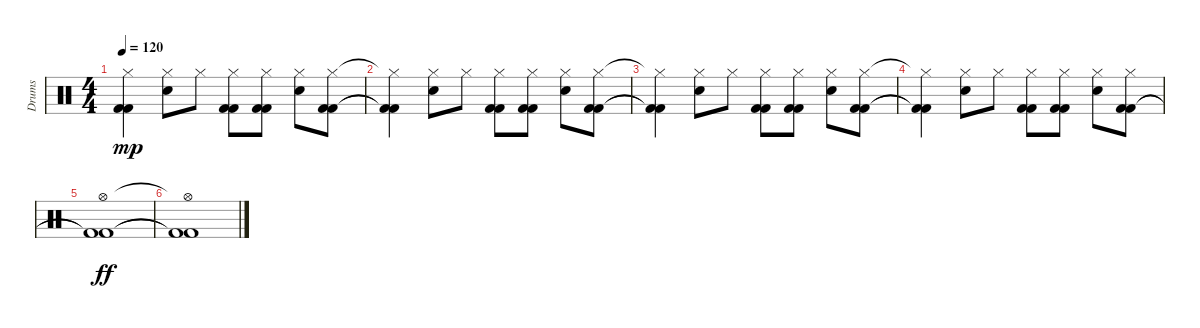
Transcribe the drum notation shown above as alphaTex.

\track ("Drums" "Drums") {instrument percussion}
\staff {score}
\articulation defaults
\ts (4 4)
\tempo 120
\clef neutral
\ks c
("Hi-Hat (closed)" "Kick (hit) 2" "Kick (hit) 2").4{dy mp} ("Hi-Hat (closed)" "Hand Clap (hit)").8 "Hi-Hat (closed)".8 ("Hi-Hat (closed)" "Kick (hit) 2" "Kick (hit) 2").8 ("Hi-Hat (closed)" "Kick (hit) 2" "Kick (hit) 2").8 ("Hi-Hat (closed)" "Hand Clap (hit)").8 ("Hi-Hat (closed)" "Kick (hit) 2" "Kick (hit) 2").8 |
("Hi-Hat (closed)"{t} "Kick (hit) 2"{t} "Kick (hit) 2"{t}).4 ("Hi-Hat (closed)" "Hand Clap (hit)").8 "Hi-Hat (closed)".8 ("Hi-Hat (closed)" "Kick (hit) 2" "Kick (hit) 2").8 ("Hi-Hat (closed)" "Kick (hit) 2" "Kick (hit) 2").8 ("Hi-Hat (closed)" "Hand Clap (hit)").8 ("Hi-Hat (closed)" "Kick (hit) 2" "Kick (hit) 2").8 |
("Hi-Hat (closed)"{t} "Kick (hit) 2"{t} "Kick (hit) 2"{t}).4 ("Hi-Hat (closed)" "Hand Clap (hit)").8 "Hi-Hat (closed)".8 ("Hi-Hat (closed)" "Kick (hit) 2" "Kick (hit) 2").8 ("Hi-Hat (closed)" "Kick (hit) 2" "Kick (hit) 2").8 ("Hi-Hat (closed)" "Hand Clap (hit)").8 ("Hi-Hat (closed)" "Kick (hit) 2" "Kick (hit) 2").8 |
("Hi-Hat (closed)"{t} "Kick (hit) 2"{t} "Kick (hit) 2"{t}).4 ("Hi-Hat (closed)" "Hand Clap (hit)").8 "Hi-Hat (closed)".8 ("Hi-Hat (closed)" "Kick (hit) 2" "Kick (hit) 2").8 ("Hi-Hat (closed)" "Kick (hit) 2" "Kick (hit) 2").8 ("Hi-Hat (closed)" "Hand Clap (hit)").8 ("Hi-Hat (closed)" "Kick (hit) 2" "Kick (hit) 2").8 |
("Hi-Hat (open)" "Kick (hit) 2"{t} "Kick (hit) 2"{t}).1{dy ff} |
("Hi-Hat (open)"{t} "Kick (hit) 2"{t} "Kick (hit) 2"{t}).1
